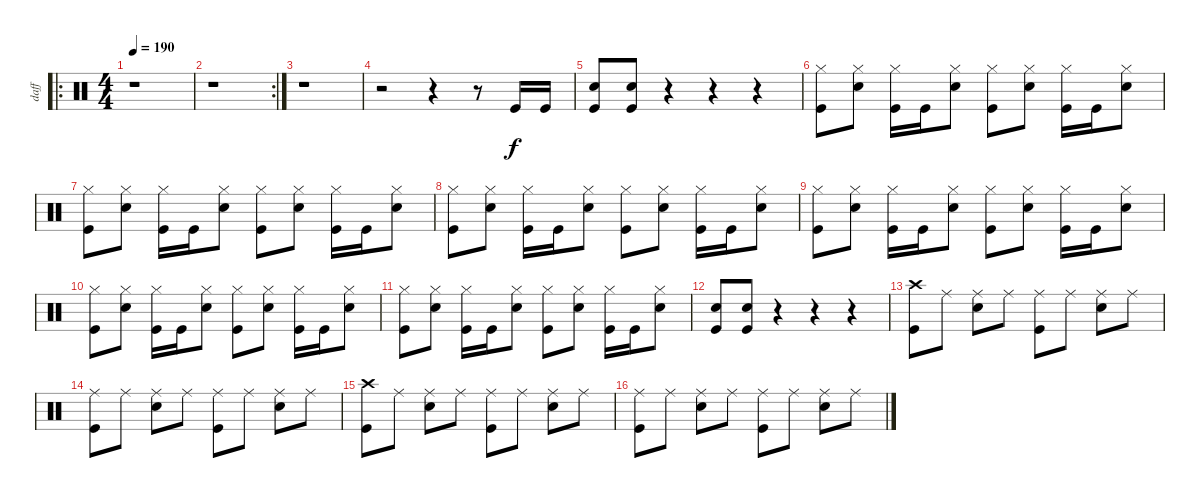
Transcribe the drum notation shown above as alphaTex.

\track ("daff" "daff") {instrument percussion}
\staff {score}
\articulation defaults
\ro
\ts (4 4)
\tempo 190
\clef neutral
\ks c
r.1{dy f} |
\rc 2
r.1 |
r.1 |
r.2 r.4 r.8 "Kick (hit)".16 "Kick (hit)".16 |
("Electric Snare (hit)" "Kick (hit)").8 ("Electric Snare (hit)" "Kick (hit)").8 r.4 r.4 r.4 |
("Hi-Hat (closed)" "Kick (hit)").8 ("Hi-Hat (closed)" "Electric Snare (hit)").8 ("Hi-Hat (closed)" "Kick (hit)").16 "Kick (hit)".16 ("Hi-Hat (closed)" "Electric Snare (hit)").8 ("Hi-Hat (closed)" "Kick (hit)").8 ("Hi-Hat (closed)" "Electric Snare (hit)").8 ("Hi-Hat (closed)" "Kick (hit)").16 "Kick (hit)".16 ("Hi-Hat (closed)" "Electric Snare (hit)").8 |
("Hi-Hat (closed)" "Kick (hit)").8 ("Hi-Hat (closed)" "Electric Snare (hit)").8 ("Hi-Hat (closed)" "Kick (hit)").16 "Kick (hit)".16 ("Hi-Hat (closed)" "Electric Snare (hit)").8 ("Hi-Hat (closed)" "Kick (hit)").8 ("Hi-Hat (closed)" "Electric Snare (hit)").8 ("Hi-Hat (closed)" "Kick (hit)").16 "Kick (hit)".16 ("Hi-Hat (closed)" "Electric Snare (hit)").8 |
("Hi-Hat (closed)" "Kick (hit)").8 ("Hi-Hat (closed)" "Electric Snare (hit)").8 ("Hi-Hat (closed)" "Kick (hit)").16 "Kick (hit)".16 ("Hi-Hat (closed)" "Electric Snare (hit)").8 ("Hi-Hat (closed)" "Kick (hit)").8 ("Hi-Hat (closed)" "Electric Snare (hit)").8 ("Hi-Hat (closed)" "Kick (hit)").16 "Kick (hit)".16 ("Hi-Hat (closed)" "Electric Snare (hit)").8 |
("Hi-Hat (closed)" "Kick (hit)").8 ("Hi-Hat (closed)" "Electric Snare (hit)").8 ("Hi-Hat (closed)" "Kick (hit)").16 "Kick (hit)".16 ("Hi-Hat (closed)" "Electric Snare (hit)").8 ("Hi-Hat (closed)" "Kick (hit)").8 ("Hi-Hat (closed)" "Electric Snare (hit)").8 ("Hi-Hat (closed)" "Kick (hit)").16 "Kick (hit)".16 ("Hi-Hat (closed)" "Electric Snare (hit)").8 |
("Hi-Hat (closed)" "Kick (hit)").8 ("Hi-Hat (closed)" "Electric Snare (hit)").8 ("Hi-Hat (closed)" "Kick (hit)").16 "Kick (hit)".16 ("Hi-Hat (closed)" "Electric Snare (hit)").8 ("Hi-Hat (closed)" "Kick (hit)").8 ("Hi-Hat (closed)" "Electric Snare (hit)").8 ("Hi-Hat (closed)" "Kick (hit)").16 "Kick (hit)".16 ("Hi-Hat (closed)" "Electric Snare (hit)").8 |
("Hi-Hat (closed)" "Kick (hit)").8 ("Hi-Hat (closed)" "Electric Snare (hit)").8 ("Hi-Hat (closed)" "Kick (hit)").16 "Kick (hit)".16 ("Hi-Hat (closed)" "Electric Snare (hit)").8 ("Hi-Hat (closed)" "Kick (hit)").8 ("Hi-Hat (closed)" "Electric Snare (hit)").8 ("Hi-Hat (closed)" "Kick (hit)").16 "Kick (hit)".16 ("Hi-Hat (closed)" "Electric Snare (hit)").8 |
("Electric Snare (hit)" "Kick (hit)").8 ("Electric Snare (hit)" "Kick (hit)").8 r.4 r.4 r.4 |
("Crash high (hit)" "Kick (hit)").8 "Ride (middle)".8 ("Ride (middle)" "Electric Snare (hit)").8 "Ride (middle)".8 ("Ride (middle)" "Kick (hit)").8 "Ride (middle)".8 ("Ride (middle)" "Electric Snare (hit)").8 "Ride (middle)".8 |
("Ride (middle)" "Kick (hit)").8 "Ride (middle)".8 ("Ride (middle)" "Electric Snare (hit)").8 "Ride (middle)".8 ("Ride (middle)" "Kick (hit)").8 "Ride (middle)".8 ("Ride (middle)" "Electric Snare (hit)").8 "Ride (middle)".8 |
("Crash high (hit)" "Kick (hit)").8 "Ride (middle)".8 ("Ride (middle)" "Electric Snare (hit)").8 "Ride (middle)".8 ("Ride (middle)" "Kick (hit)").8 "Ride (middle)".8 ("Ride (middle)" "Electric Snare (hit)").8 "Ride (middle)".8 |
("Ride (middle)" "Kick (hit)").8 "Ride (middle)".8 ("Ride (middle)" "Electric Snare (hit)").8 "Ride (middle)".8 ("Ride (middle)" "Kick (hit)").8 "Ride (middle)".8 ("Ride (middle)" "Electric Snare (hit)").8 "Ride (middle)".8
